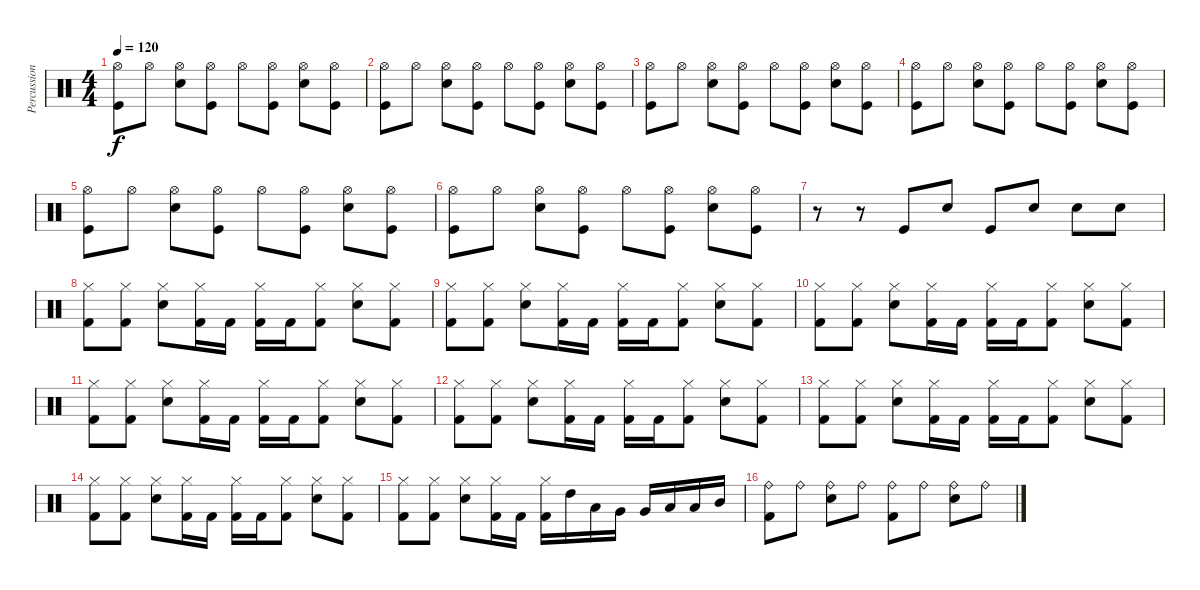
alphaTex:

\track ("Percussion" "Percussion") {instrument percussion}
\staff {score}
\articulation defaults
\ts (4 4)
\tempo 120
\clef neutral
\ks c
("Hi-Hat (open)" "Kick (hit)").8{dy f} "Hi-Hat (open)".8 ("Hi-Hat (open)" "Snare (hit) 2").8 ("Hi-Hat (open)" "Kick (hit)").8 "Hi-Hat (open)".8 ("Hi-Hat (open)" "Kick (hit)").8 ("Hi-Hat (open)" "Snare (hit) 2").8 ("Hi-Hat (open)" "Kick (hit)").8 |
("Hi-Hat (open)" "Kick (hit)").8 "Hi-Hat (open)".8 ("Hi-Hat (open)" "Snare (hit) 2").8 ("Hi-Hat (open)" "Kick (hit)").8 "Hi-Hat (open)".8 ("Hi-Hat (open)" "Kick (hit)").8 ("Hi-Hat (open)" "Snare (hit) 2").8 ("Hi-Hat (open)" "Kick (hit)").8 |
("Hi-Hat (open)" "Kick (hit)").8 "Hi-Hat (open)".8 ("Hi-Hat (open)" "Snare (hit) 2").8 ("Hi-Hat (open)" "Kick (hit)").8 "Hi-Hat (open)".8 ("Hi-Hat (open)" "Kick (hit)").8 ("Hi-Hat (open)" "Snare (hit) 2").8 ("Hi-Hat (open)" "Kick (hit)").8 |
("Hi-Hat (open)" "Kick (hit)").8 "Hi-Hat (open)".8 ("Hi-Hat (open)" "Snare (hit) 2").8 ("Hi-Hat (open)" "Kick (hit)").8 "Hi-Hat (open)".8 ("Hi-Hat (open)" "Kick (hit)").8 ("Hi-Hat (open)" "Snare (hit) 2").8 ("Hi-Hat (open)" "Kick (hit)").8 |
("Hi-Hat (open)" "Kick (hit)").8 "Hi-Hat (open)".8 ("Hi-Hat (open)" "Snare (hit) 2").8 ("Hi-Hat (open)" "Kick (hit)").8 "Hi-Hat (open)".8 ("Hi-Hat (open)" "Kick (hit)").8 ("Hi-Hat (open)" "Snare (hit) 2").8 ("Hi-Hat (open)" "Kick (hit)").8 |
("Hi-Hat (open)" "Kick (hit)").8 "Hi-Hat (open)".8 ("Hi-Hat (open)" "Snare (hit) 2").8 ("Hi-Hat (open)" "Kick (hit)").8 "Hi-Hat (open)".8 ("Hi-Hat (open)" "Kick (hit)").8 ("Hi-Hat (open)" "Snare (hit) 2").8 ("Hi-Hat (open)" "Kick (hit)").8 |
r.8 r.8 "Kick (hit)".8 "Snare (hit) 2".8 "Kick (hit)".8 "Snare (hit) 2".8 "Snare (hit) 2".8 "Snare (hit) 2".8 |
("Hi-Hat (closed)" "Kick (hit) 2").8 ("Hi-Hat (closed)" "Kick (hit) 2").8 ("Hi-Hat (closed)" "Electric Snare (hit)").8 ("Hi-Hat (closed)" "Kick (hit) 2").16 "Kick (hit) 2".16 ("Hi-Hat (closed)" "Kick (hit) 2").16 "Kick (hit) 2".16 ("Hi-Hat (closed)" "Kick (hit) 2").8 ("Hi-Hat (closed)" "Electric Snare (hit)").8 ("Hi-Hat (closed)" "Kick (hit) 2").8 |
("Hi-Hat (closed)" "Kick (hit) 2").8 ("Hi-Hat (closed)" "Kick (hit) 2").8 ("Hi-Hat (closed)" "Electric Snare (hit)").8 ("Hi-Hat (closed)" "Kick (hit) 2").16 "Kick (hit) 2".16 ("Hi-Hat (closed)" "Kick (hit) 2").16 "Kick (hit) 2".16 ("Hi-Hat (closed)" "Kick (hit) 2").8 ("Hi-Hat (closed)" "Electric Snare (hit)").8 ("Hi-Hat (closed)" "Kick (hit) 2").8 |
("Hi-Hat (closed)" "Kick (hit) 2").8 ("Hi-Hat (closed)" "Kick (hit) 2").8 ("Hi-Hat (closed)" "Electric Snare (hit)").8 ("Hi-Hat (closed)" "Kick (hit) 2").16 "Kick (hit) 2".16 ("Hi-Hat (closed)" "Kick (hit) 2").16 "Kick (hit) 2".16 ("Hi-Hat (closed)" "Kick (hit) 2").8 ("Hi-Hat (closed)" "Electric Snare (hit)").8 ("Hi-Hat (closed)" "Kick (hit) 2").8 |
("Hi-Hat (closed)" "Kick (hit) 2").8 ("Hi-Hat (closed)" "Kick (hit) 2").8 ("Hi-Hat (closed)" "Electric Snare (hit)").8 ("Hi-Hat (closed)" "Kick (hit) 2").16 "Kick (hit) 2".16 ("Hi-Hat (closed)" "Kick (hit) 2").16 "Kick (hit) 2".16 ("Hi-Hat (closed)" "Kick (hit) 2").8 ("Hi-Hat (closed)" "Electric Snare (hit)").8 ("Hi-Hat (closed)" "Kick (hit) 2").8 |
("Hi-Hat (closed)" "Kick (hit) 2").8 ("Hi-Hat (closed)" "Kick (hit) 2").8 ("Hi-Hat (closed)" "Electric Snare (hit)").8 ("Hi-Hat (closed)" "Kick (hit) 2").16 "Kick (hit) 2".16 ("Hi-Hat (closed)" "Kick (hit) 2").16 "Kick (hit) 2".16 ("Hi-Hat (closed)" "Kick (hit) 2").8 ("Hi-Hat (closed)" "Electric Snare (hit)").8 ("Hi-Hat (closed)" "Kick (hit) 2").8 |
("Hi-Hat (closed)" "Kick (hit) 2").8 ("Hi-Hat (closed)" "Kick (hit) 2").8 ("Hi-Hat (closed)" "Electric Snare (hit)").8 ("Hi-Hat (closed)" "Kick (hit) 2").16 "Kick (hit) 2".16 ("Hi-Hat (closed)" "Kick (hit) 2").16 "Kick (hit) 2".16 ("Hi-Hat (closed)" "Kick (hit) 2").8 ("Hi-Hat (closed)" "Electric Snare (hit)").8 ("Hi-Hat (closed)" "Kick (hit) 2").8 |
("Hi-Hat (closed)" "Kick (hit) 2").8 ("Hi-Hat (closed)" "Kick (hit) 2").8 ("Hi-Hat (closed)" "Electric Snare (hit)").8 ("Hi-Hat (closed)" "Kick (hit) 2").16 "Kick (hit) 2".16 ("Hi-Hat (closed)" "Kick (hit) 2").16 "Kick (hit) 2".16 ("Hi-Hat (closed)" "Kick (hit) 2").8 ("Hi-Hat (closed)" "Electric Snare (hit)").8 ("Hi-Hat (closed)" "Kick (hit) 2").8 |
("Hi-Hat (closed)" "Kick (hit) 2").8 ("Hi-Hat (closed)" "Kick (hit) 2").8 ("Hi-Hat (closed)" "Electric Snare (hit)").8 ("Hi-Hat (closed)" "Kick (hit) 2").16 "Kick (hit) 2".16 ("Hi-Hat (closed)" "Kick (hit) 2").16 "High Tom (hit)".16 "Low Tom (hit)".16 "Very Low Tom (hit)".16 "Very Low Tom (hit)".16 "Low Floor Tom (hit)".16 "Low Tom (hit)".16 "Mid Tom (hit)".16 |
("Ride (bell)" "Kick (hit) 2").8 "Ride (bell)".8 ("Ride (bell)" "Electric Snare (hit)").8 "Ride (bell)".8 ("Ride (bell)" "Kick (hit) 2").8 "Ride (bell)".8 ("Ride (bell)" "Electric Snare (hit)").8 "Ride (bell)".8
